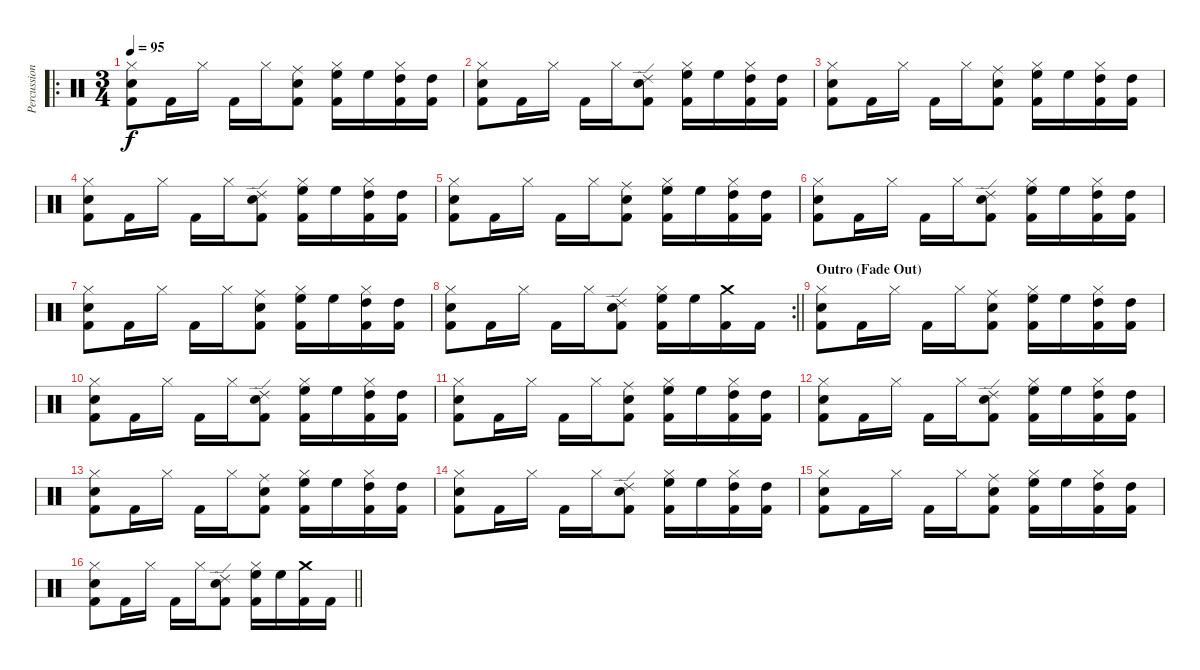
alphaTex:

\track ("Percussion" "Percussion") {instrument percussion}
\staff {score}
\articulation defaults
\ro
\ts (3 4)
\tempo 95
\clef neutral
\ks c
("Hi-Hat (closed)" "Snare (hit) 2" "Kick (hit) 2").8{dy f} "Kick (hit) 2".16 "Hi-Hat (closed)".16 "Kick (hit) 2".16 "Hi-Hat (closed)".16 ("Ride (middle)" "Snare (hit) 2" "Kick (hit) 2").8 ("Hi-Hat (closed)" "High Floor Tom (hit)" "Kick (hit) 2").16 "High Floor Tom (hit)".16 ("Hi-Hat (closed)" "High Tom (hit)" "Kick (hit) 2").16 ("High Tom (hit)" "Kick (hit) 2").16 |
("Hi-Hat (closed)" "Snare (hit) 2" "Kick (hit) 2").8 "Kick (hit) 2".16 "Hi-Hat (closed)".16 "Kick (hit) 2".16 "Hi-Hat (closed)".16 ("Ride (edge) 2" "Snare (hit) 2" "Kick (hit) 2").8 ("Hi-Hat (closed)" "High Floor Tom (hit)" "Kick (hit) 2").16 "High Floor Tom (hit)".16 ("Hi-Hat (closed)" "High Tom (hit)" "Kick (hit) 2").16 ("High Tom (hit)" "Kick (hit) 2").16 |
("Hi-Hat (closed)" "Snare (hit) 2" "Kick (hit) 2").8 "Kick (hit) 2".16 "Hi-Hat (closed)".16 "Kick (hit) 2".16 "Hi-Hat (closed)".16 ("Ride (middle)" "Snare (hit) 2" "Kick (hit) 2").8 ("Hi-Hat (closed)" "High Floor Tom (hit)" "Kick (hit) 2").16 "High Floor Tom (hit)".16 ("Hi-Hat (closed)" "High Tom (hit)" "Kick (hit) 2").16 ("High Tom (hit)" "Kick (hit) 2").16 |
("Hi-Hat (closed)" "Snare (hit) 2" "Kick (hit) 2").8 "Kick (hit) 2".16 "Hi-Hat (closed)".16 "Kick (hit) 2".16 "Hi-Hat (closed)".16 ("Ride (edge) 2" "Snare (hit) 2" "Kick (hit) 2").8 ("Hi-Hat (closed)" "High Floor Tom (hit)" "Kick (hit) 2").16 "High Floor Tom (hit)".16 ("Hi-Hat (closed)" "High Tom (hit)" "Kick (hit) 2").16 ("High Tom (hit)" "Kick (hit) 2").16 |
("Hi-Hat (closed)" "Snare (hit) 2" "Kick (hit) 2").8 "Kick (hit) 2".16 "Hi-Hat (closed)".16 "Kick (hit) 2".16 "Hi-Hat (closed)".16 ("Ride (middle)" "Snare (hit) 2" "Kick (hit) 2").8 ("Hi-Hat (closed)" "High Floor Tom (hit)" "Kick (hit) 2").16 "High Floor Tom (hit)".16 ("Hi-Hat (closed)" "High Tom (hit)" "Kick (hit) 2").16 ("High Tom (hit)" "Kick (hit) 2").16 |
("Hi-Hat (closed)" "Snare (hit) 2" "Kick (hit) 2").8 "Kick (hit) 2".16 "Hi-Hat (closed)".16 "Kick (hit) 2".16 "Hi-Hat (closed)".16 ("Ride (edge) 2" "Snare (hit) 2" "Kick (hit) 2").8 ("Hi-Hat (closed)" "High Floor Tom (hit)" "Kick (hit) 2").16 "High Floor Tom (hit)".16 ("Hi-Hat (closed)" "High Tom (hit)" "Kick (hit) 2").16 ("High Tom (hit)" "Kick (hit) 2").16 |
("Hi-Hat (closed)" "Snare (hit) 2" "Kick (hit) 2").8 "Kick (hit) 2".16 "Hi-Hat (closed)".16 "Kick (hit) 2".16 "Hi-Hat (closed)".16 ("Ride (middle)" "Snare (hit) 2" "Kick (hit) 2").8 ("Hi-Hat (closed)" "High Floor Tom (hit)" "Kick (hit) 2").16 "High Floor Tom (hit)".16 ("Hi-Hat (closed)" "High Tom (hit)" "Kick (hit) 2").16 ("High Tom (hit)" "Kick (hit) 2").16 |
\rc 2
\barLineRight lightlight
("Hi-Hat (closed)" "Snare (hit) 2" "Kick (hit) 2").8 "Kick (hit) 2".16 "Hi-Hat (closed)".16 "Kick (hit) 2".16 "Hi-Hat (closed)".16 ("Ride (edge) 2" "Snare (hit) 2" "Kick (hit) 2").8 ("Hi-Hat (closed)" "High Floor Tom (hit)" "Kick (hit) 2").16 "High Floor Tom (hit)".16 ("Crash medium (hit)" "Kick (hit) 2").16 "Kick (hit) 2".16 |
\section ("" "Outro (Fade Out)")
("Hi-Hat (closed)" "Snare (hit) 2" "Kick (hit) 2").8 "Kick (hit) 2".16 "Hi-Hat (closed)".16 "Kick (hit) 2".16 "Hi-Hat (closed)".16 ("Ride (middle)" "Snare (hit) 2" "Kick (hit) 2").8 ("Hi-Hat (closed)" "High Floor Tom (hit)" "Kick (hit) 2").16 "High Floor Tom (hit)".16 ("Hi-Hat (closed)" "High Tom (hit)" "Kick (hit) 2").16 ("High Tom (hit)" "Kick (hit) 2").16 |
("Hi-Hat (closed)" "Snare (hit) 2" "Kick (hit) 2").8 "Kick (hit) 2".16 "Hi-Hat (closed)".16 "Kick (hit) 2".16 "Hi-Hat (closed)".16 ("Ride (edge) 2" "Snare (hit) 2" "Kick (hit) 2").8 ("Hi-Hat (closed)" "High Floor Tom (hit)" "Kick (hit) 2").16 "High Floor Tom (hit)".16 ("Hi-Hat (closed)" "High Tom (hit)" "Kick (hit) 2").16 ("High Tom (hit)" "Kick (hit) 2").16 |
("Hi-Hat (closed)" "Snare (hit) 2" "Kick (hit) 2").8 "Kick (hit) 2".16 "Hi-Hat (closed)".16 "Kick (hit) 2".16 "Hi-Hat (closed)".16 ("Ride (middle)" "Snare (hit) 2" "Kick (hit) 2").8 ("Hi-Hat (closed)" "High Floor Tom (hit)" "Kick (hit) 2").16 "High Floor Tom (hit)".16 ("Hi-Hat (closed)" "High Tom (hit)" "Kick (hit) 2").16 ("High Tom (hit)" "Kick (hit) 2").16 |
("Hi-Hat (closed)" "Snare (hit) 2" "Kick (hit) 2").8 "Kick (hit) 2".16 "Hi-Hat (closed)".16 "Kick (hit) 2".16 "Hi-Hat (closed)".16 ("Ride (edge) 2" "Snare (hit) 2" "Kick (hit) 2").8 ("Hi-Hat (closed)" "High Floor Tom (hit)" "Kick (hit) 2").16 "High Floor Tom (hit)".16 ("Hi-Hat (closed)" "High Tom (hit)" "Kick (hit) 2").16 ("High Tom (hit)" "Kick (hit) 2").16 |
("Hi-Hat (closed)" "Snare (hit) 2" "Kick (hit) 2").8 "Kick (hit) 2".16 "Hi-Hat (closed)".16 "Kick (hit) 2".16 "Hi-Hat (closed)".16 ("Ride (middle)" "Snare (hit) 2" "Kick (hit) 2").8 ("Hi-Hat (closed)" "High Floor Tom (hit)" "Kick (hit) 2").16 "High Floor Tom (hit)".16 ("Hi-Hat (closed)" "High Tom (hit)" "Kick (hit) 2").16 ("High Tom (hit)" "Kick (hit) 2").16 |
("Hi-Hat (closed)" "Snare (hit) 2" "Kick (hit) 2").8 "Kick (hit) 2".16 "Hi-Hat (closed)".16 "Kick (hit) 2".16 "Hi-Hat (closed)".16 ("Ride (edge) 2" "Snare (hit) 2" "Kick (hit) 2").8 ("Hi-Hat (closed)" "High Floor Tom (hit)" "Kick (hit) 2").16 "High Floor Tom (hit)".16 ("Hi-Hat (closed)" "High Tom (hit)" "Kick (hit) 2").16 ("High Tom (hit)" "Kick (hit) 2").16 |
("Hi-Hat (closed)" "Snare (hit) 2" "Kick (hit) 2").8 "Kick (hit) 2".16 "Hi-Hat (closed)".16 "Kick (hit) 2".16 "Hi-Hat (closed)".16 ("Ride (middle)" "Snare (hit) 2" "Kick (hit) 2").8 ("Hi-Hat (closed)" "High Floor Tom (hit)" "Kick (hit) 2").16 "High Floor Tom (hit)".16 ("Hi-Hat (closed)" "High Tom (hit)" "Kick (hit) 2").16 ("High Tom (hit)" "Kick (hit) 2").16 |
\barLineRight lightlight
("Hi-Hat (closed)" "Snare (hit) 2" "Kick (hit) 2").8 "Kick (hit) 2".16 "Hi-Hat (closed)".16 "Kick (hit) 2".16 "Hi-Hat (closed)".16 ("Ride (edge) 2" "Snare (hit) 2" "Kick (hit) 2").8 ("Hi-Hat (closed)" "High Floor Tom (hit)" "Kick (hit) 2").16 "High Floor Tom (hit)".16 ("Crash medium (hit)" "Kick (hit) 2").16 "Kick (hit) 2".16
